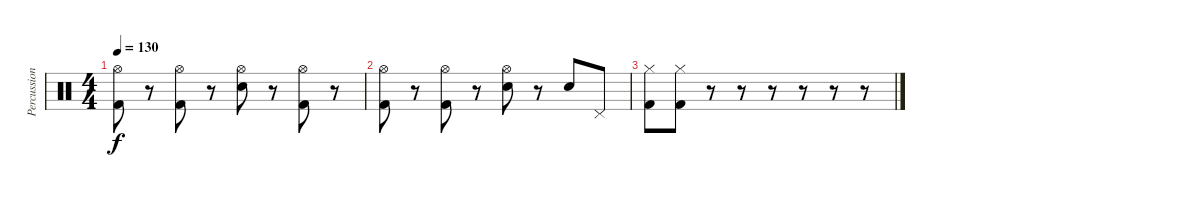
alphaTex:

\track ("Percussion" "Percussion") {instrument percussion}
\staff {score}
\articulation defaults
\ts (4 4)
\tempo 130
\clef neutral
\ks c
("Kick (hit) 2" "Hi-Hat (open)").8{dy f} r.8 ("Kick (hit) 2" "Hi-Hat (open)").8 r.8 ("Electric Snare (hit)" "Hi-Hat (open)").8 r.8 ("Kick (hit) 2" "Hi-Hat (open)").8 r.8 |
("Kick (hit) 2" "Hi-Hat (open)").8 r.8 ("Kick (hit) 2" "Hi-Hat (open)").8 r.8 ("Electric Snare (hit)" "Hi-Hat (open)").8 r.8 "Snare (hit) 2".8 "Pedal Hi-Hat (hit)".8 |
("Kick (hit) 2" "Hi-Hat (closed)").8 ("Kick (hit) 2" "Hi-Hat (closed)").8 r.8 r.8 r.8 r.8 r.8 r.8
